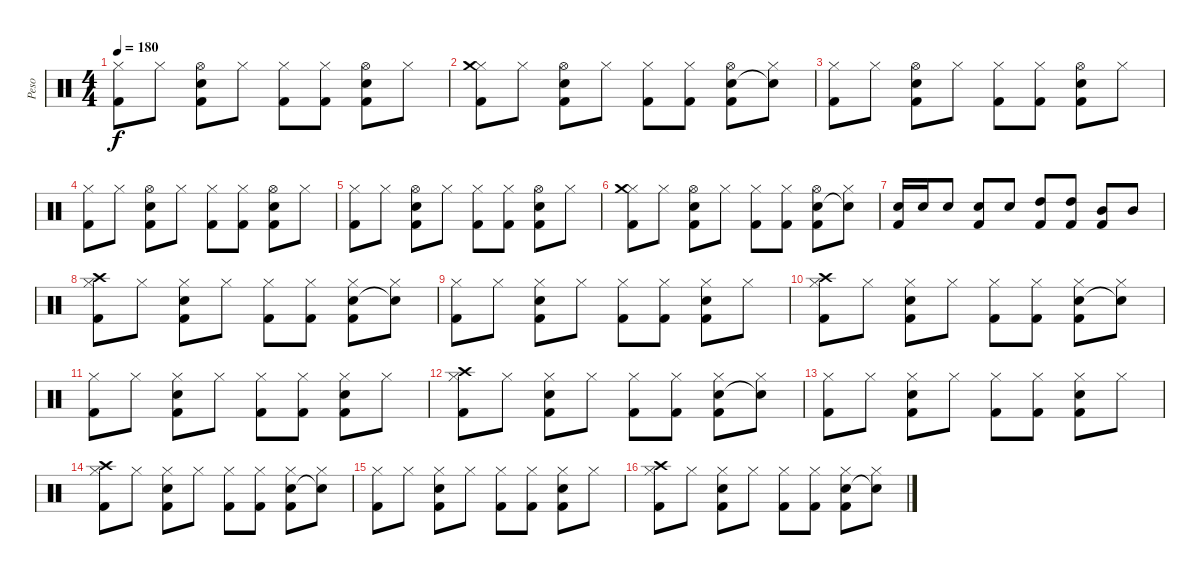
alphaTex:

\track ("Peso" "Peso") {instrument percussion}
\staff {score}
\articulation defaults
\ts (4 4)
\tempo 180
\clef neutral
\ks c
("Hi-Hat (closed)" "Kick (hit) 2").8{dy f} "Hi-Hat (closed)".8 ("Hi-Hat (open)" "Electric Snare (hit)" "Kick (hit) 2").8 "Hi-Hat (closed)".8 ("Hi-Hat (closed)" "Kick (hit) 2").8 ("Hi-Hat (closed)" "Kick (hit) 2").8 ("Hi-Hat (open)" "Electric Snare (hit)" "Kick (hit) 2").8 "Hi-Hat (closed)".8 |
("Hi-Hat (closed)" "Crash medium (hit)" "Kick (hit) 2").8 "Hi-Hat (closed)".8 ("Hi-Hat (open)" "Electric Snare (hit)" "Kick (hit) 2").8 "Hi-Hat (closed)".8 ("Hi-Hat (closed)" "Kick (hit) 2").8 ("Hi-Hat (closed)" "Kick (hit) 2").8 ("Hi-Hat (open)" "Electric Snare (hit)" "Kick (hit) 2").8 ("Hi-Hat (closed)" "Snare (hit)"{t}).8 |
("Hi-Hat (closed)" "Kick (hit) 2").8 "Hi-Hat (closed)".8 ("Hi-Hat (open)" "Electric Snare (hit)" "Kick (hit) 2").8 "Hi-Hat (closed)".8 ("Hi-Hat (closed)" "Kick (hit) 2").8 ("Hi-Hat (closed)" "Kick (hit) 2").8 ("Hi-Hat (open)" "Electric Snare (hit)" "Kick (hit) 2").8 "Hi-Hat (closed)".8 |
("Hi-Hat (closed)" "Kick (hit) 2").8 "Hi-Hat (closed)".8 ("Hi-Hat (open)" "Electric Snare (hit)" "Kick (hit) 2").8 "Hi-Hat (closed)".8 ("Hi-Hat (closed)" "Kick (hit) 2").8 ("Hi-Hat (closed)" "Kick (hit) 2").8 ("Hi-Hat (open)" "Electric Snare (hit)" "Kick (hit) 2").8 "Hi-Hat (closed)".8 |
("Hi-Hat (closed)" "Kick (hit) 2").8 "Hi-Hat (closed)".8 ("Hi-Hat (open)" "Electric Snare (hit)" "Kick (hit) 2").8 "Hi-Hat (closed)".8 ("Hi-Hat (closed)" "Kick (hit) 2").8 ("Hi-Hat (closed)" "Kick (hit) 2").8 ("Hi-Hat (open)" "Electric Snare (hit)" "Kick (hit) 2").8 "Hi-Hat (closed)".8 |
("Hi-Hat (closed)" "Crash medium (hit)" "Kick (hit) 2").8 "Hi-Hat (closed)".8 ("Hi-Hat (open)" "Electric Snare (hit)" "Kick (hit) 2").8 "Hi-Hat (closed)".8 ("Hi-Hat (closed)" "Kick (hit) 2").8 ("Hi-Hat (closed)" "Kick (hit) 2").8 ("Hi-Hat (open)" "Electric Snare (hit)" "Kick (hit) 2").8 ("Hi-Hat (closed)" "Snare (hit)"{t}).8 |
("Electric Snare (hit)" "Kick (hit) 2").16 "Electric Snare (hit)".16 "Electric Snare (hit)".8 ("Electric Snare (hit)" "Kick (hit) 2").8 "Electric Snare (hit)".8 ("High Tom (hit)" "Kick (hit) 2").8 ("High Tom (hit)" "Kick (hit) 2").8 ("Mid Tom (hit)" "Kick (hit) 2").8 "Mid Tom (hit)".8 |
("Hi-Hat (closed)" "Crash high (hit)" "Kick (hit) 2").8 "Hi-Hat (closed)".8 ("Hi-Hat (closed)" "Electric Snare (hit)" "Kick (hit) 2").8 "Hi-Hat (closed)".8 ("Hi-Hat (closed)" "Kick (hit) 2").8 ("Hi-Hat (closed)" "Kick (hit) 2").8 ("Hi-Hat (closed)" "Electric Snare (hit)" "Kick (hit) 2").8 ("Hi-Hat (closed)" "Snare (hit)"{t}).8 |
("Hi-Hat (closed)" "Kick (hit) 2").8 "Hi-Hat (closed)".8 ("Hi-Hat (closed)" "Electric Snare (hit)" "Kick (hit) 2").8 "Hi-Hat (closed)".8 ("Hi-Hat (closed)" "Kick (hit) 2").8 ("Hi-Hat (closed)" "Kick (hit) 2").8 ("Hi-Hat (closed)" "Electric Snare (hit)" "Kick (hit) 2").8 "Hi-Hat (closed)".8 |
("Hi-Hat (closed)" "Crash high (hit)" "Kick (hit) 2").8 "Hi-Hat (closed)".8 ("Hi-Hat (closed)" "Electric Snare (hit)" "Kick (hit) 2").8 "Hi-Hat (closed)".8 ("Hi-Hat (closed)" "Kick (hit) 2").8 ("Hi-Hat (closed)" "Kick (hit) 2").8 ("Hi-Hat (closed)" "Electric Snare (hit)" "Kick (hit) 2").8 ("Hi-Hat (closed)" "Snare (hit)"{t}).8 |
("Hi-Hat (closed)" "Kick (hit) 2").8 "Hi-Hat (closed)".8 ("Hi-Hat (closed)" "Electric Snare (hit)" "Kick (hit) 2").8 "Hi-Hat (closed)".8 ("Hi-Hat (closed)" "Kick (hit) 2").8 ("Hi-Hat (closed)" "Kick (hit) 2").8 ("Hi-Hat (closed)" "Electric Snare (hit)" "Kick (hit) 2").8 "Hi-Hat (closed)".8 |
("Hi-Hat (closed)" "Crash high (hit)" "Kick (hit) 2").8 "Hi-Hat (closed)".8 ("Hi-Hat (closed)" "Electric Snare (hit)" "Kick (hit) 2").8 "Hi-Hat (closed)".8 ("Hi-Hat (closed)" "Kick (hit) 2").8 ("Hi-Hat (closed)" "Kick (hit) 2").8 ("Hi-Hat (closed)" "Electric Snare (hit)" "Kick (hit) 2").8 ("Hi-Hat (closed)" "Snare (hit)"{t}).8 |
("Hi-Hat (closed)" "Kick (hit) 2").8 "Hi-Hat (closed)".8 ("Hi-Hat (closed)" "Electric Snare (hit)" "Kick (hit) 2").8 "Hi-Hat (closed)".8 ("Hi-Hat (closed)" "Kick (hit) 2").8 ("Hi-Hat (closed)" "Kick (hit) 2").8 ("Hi-Hat (closed)" "Electric Snare (hit)" "Kick (hit) 2").8 "Hi-Hat (closed)".8 |
("Hi-Hat (closed)" "Crash high (hit)" "Kick (hit) 2").8 "Hi-Hat (closed)".8 ("Hi-Hat (closed)" "Electric Snare (hit)" "Kick (hit) 2").8 "Hi-Hat (closed)".8 ("Hi-Hat (closed)" "Kick (hit) 2").8 ("Hi-Hat (closed)" "Kick (hit) 2").8 ("Hi-Hat (closed)" "Electric Snare (hit)" "Kick (hit) 2").8 ("Hi-Hat (closed)" "Snare (hit)"{t}).8 |
("Hi-Hat (closed)" "Kick (hit) 2").8 "Hi-Hat (closed)".8 ("Hi-Hat (closed)" "Electric Snare (hit)" "Kick (hit) 2").8 "Hi-Hat (closed)".8 ("Hi-Hat (closed)" "Kick (hit) 2").8 ("Hi-Hat (closed)" "Kick (hit) 2").8 ("Hi-Hat (closed)" "Electric Snare (hit)" "Kick (hit) 2").8 "Hi-Hat (closed)".8 |
("Hi-Hat (closed)" "Crash high (hit)" "Kick (hit) 2").8 "Hi-Hat (closed)".8 ("Hi-Hat (closed)" "Electric Snare (hit)" "Kick (hit) 2").8 "Hi-Hat (closed)".8 ("Hi-Hat (closed)" "Kick (hit) 2").8 ("Hi-Hat (closed)" "Kick (hit) 2").8 ("Hi-Hat (closed)" "Electric Snare (hit)" "Kick (hit) 2").8 ("Hi-Hat (closed)" "Snare (hit)"{t}).8
